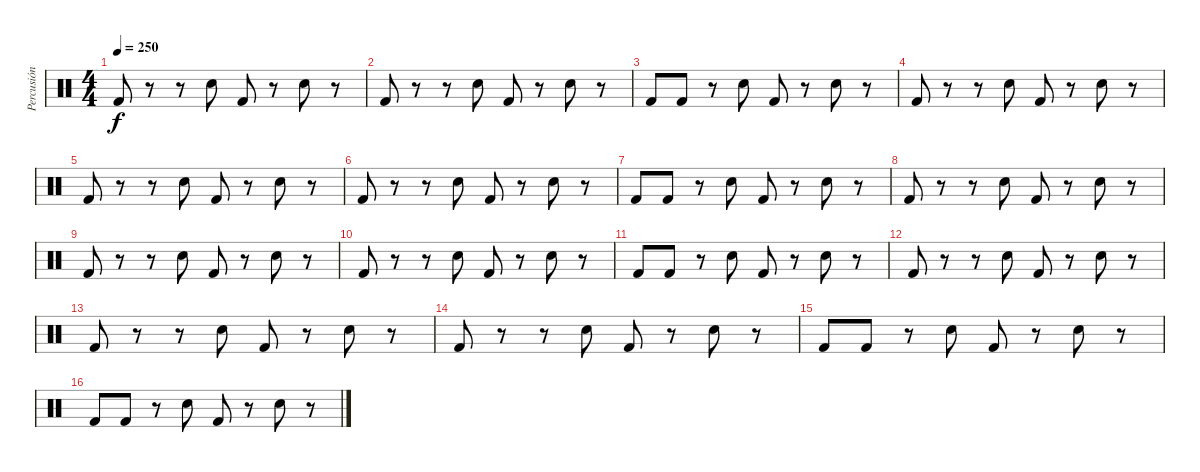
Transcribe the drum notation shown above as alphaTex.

\track ("Percusión" "Percusión") {instrument percussion}
\staff {score}
\articulation defaults
\ts (4 4)
\tempo 250
\clef neutral
\ks c "Kick (hit) 2".8{dy f}
r.8 r.8 "Electric Snare (hit)".8 "Kick (hit) 2".8 r.8 "Electric Snare (hit)".8 r.8 |
"Kick (hit) 2".8 r.8 r.8 "Electric Snare (hit)".8 "Kick (hit) 2".8 r.8 "Electric Snare (hit)".8 r.8 |
"Kick (hit) 2".8 "Kick (hit) 2".8 r.8 "Electric Snare (hit)".8 "Kick (hit) 2".8 r.8 "Electric Snare (hit)".8 r.8 |
"Kick (hit) 2".8 r.8 r.8 "Electric Snare (hit)".8 "Kick (hit) 2".8 r.8 "Electric Snare (hit)".8 r.8 |
"Kick (hit) 2".8 r.8 r.8 "Electric Snare (hit)".8 "Kick (hit) 2".8 r.8 "Electric Snare (hit)".8 r.8 |
"Kick (hit) 2".8 r.8 r.8 "Electric Snare (hit)".8 "Kick (hit) 2".8 r.8 "Electric Snare (hit)".8 r.8 |
"Kick (hit) 2".8 "Kick (hit) 2".8 r.8 "Electric Snare (hit)".8 "Kick (hit) 2".8 r.8 "Electric Snare (hit)".8 r.8 |
"Kick (hit) 2".8 r.8 r.8 "Electric Snare (hit)".8 "Kick (hit) 2".8 r.8 "Electric Snare (hit)".8 r.8 |
"Kick (hit) 2".8 r.8 r.8 "Electric Snare (hit)".8 "Kick (hit) 2".8 r.8 "Electric Snare (hit)".8 r.8 |
"Kick (hit) 2".8 r.8 r.8 "Electric Snare (hit)".8 "Kick (hit) 2".8 r.8 "Electric Snare (hit)".8 r.8 |
"Kick (hit) 2".8 "Kick (hit) 2".8 r.8 "Electric Snare (hit)".8 "Kick (hit) 2".8 r.8 "Electric Snare (hit)".8 r.8 |
"Kick (hit) 2".8 r.8 r.8 "Electric Snare (hit)".8 "Kick (hit) 2".8 r.8 "Electric Snare (hit)".8 r.8 |
"Kick (hit) 2".8 r.8 r.8 "Electric Snare (hit)".8 "Kick (hit) 2".8 r.8 "Electric Snare (hit)".8 r.8 |
"Kick (hit) 2".8 r.8 r.8 "Electric Snare (hit)".8 "Kick (hit) 2".8 r.8 "Electric Snare (hit)".8 r.8 |
"Kick (hit) 2".8 "Kick (hit) 2".8 r.8 "Electric Snare (hit)".8 "Kick (hit) 2".8 r.8 "Electric Snare (hit)".8 r.8 |
"Kick (hit) 2".8 "Kick (hit) 2".8 r.8 "Electric Snare (hit)".8 "Kick (hit) 2".8 r.8 "Electric Snare (hit)".8 r.8
